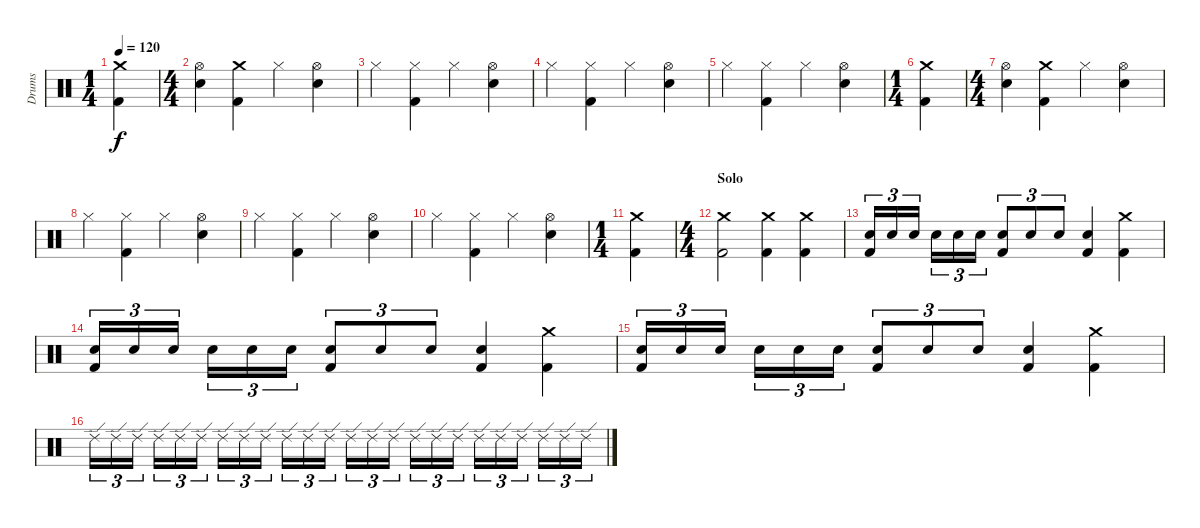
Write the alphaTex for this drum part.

\track ("Drums" "Drums") {instrument percussion}
\staff {score}
\articulation defaults
\ts (1 4)
\tempo 120
\clef neutral
\ks c
("Crash medium (hit)" "Kick (hit) 2").4{dy f} |
\ts (4 4)
("Hi-Hat (open)" "Electric Snare (hit)").4 ("Crash medium (hit)" "Kick (hit) 2").4 "Hi-Hat (closed)".4 ("Hi-Hat (open)" "Electric Snare (hit)").4 |
"Hi-Hat (closed)".4 ("Hi-Hat (closed)" "Kick (hit) 2").4 "Hi-Hat (closed)".4 ("Hi-Hat (open)" "Electric Snare (hit)").4 |
"Hi-Hat (closed)".4 ("Hi-Hat (closed)" "Kick (hit) 2").4 "Hi-Hat (closed)".4 ("Hi-Hat (open)" "Electric Snare (hit)").4 |
"Hi-Hat (closed)".4 ("Hi-Hat (closed)" "Kick (hit) 2").4 "Hi-Hat (closed)".4 ("Hi-Hat (open)" "Electric Snare (hit)").4 |
\ts (1 4)
("Crash medium (hit)" "Kick (hit) 2").4 |
\ts (4 4)
("Hi-Hat (open)" "Electric Snare (hit)").4 ("Crash medium (hit)" "Kick (hit) 2").4 "Hi-Hat (closed)".4 ("Hi-Hat (open)" "Electric Snare (hit)").4 |
"Hi-Hat (closed)".4 ("Hi-Hat (closed)" "Kick (hit) 2").4 "Hi-Hat (closed)".4 ("Hi-Hat (open)" "Electric Snare (hit)").4 |
"Hi-Hat (closed)".4 ("Hi-Hat (closed)" "Kick (hit) 2").4 "Hi-Hat (closed)".4 ("Hi-Hat (open)" "Electric Snare (hit)").4 |
"Hi-Hat (closed)".4 ("Hi-Hat (closed)" "Kick (hit) 2").4 "Hi-Hat (closed)".4 ("Hi-Hat (open)" "Electric Snare (hit)").4 |
\ts (1 4)
("Crash medium (hit)" "Kick (hit) 2").4 |
\ts (4 4)
\section ("" "Solo")
("Crash medium (hit)" "Kick (hit) 2").2 ("Crash medium (hit)" "Kick (hit) 2").4 ("Crash medium (hit)" "Kick (hit) 2").4 |
("Electric Snare (hit)" "Kick (hit) 2").16{tu (3 2)} "Electric Snare (hit)".16{tu (3 2)} "Electric Snare (hit)".16{tu (3 2)} "Electric Snare (hit)".16{tu (3 2)} "Electric Snare (hit)".16{tu (3 2)} "Electric Snare (hit)".16{tu (3 2)} ("Electric Snare (hit)" "Kick (hit) 2").8{tu (3 2)} "Electric Snare (hit)".8{tu (3 2)} "Electric Snare (hit)".8{tu (3 2)} ("Electric Snare (hit)" "Kick (hit) 2").4 ("Crash medium (hit)" "Kick (hit) 2").4 |
("Electric Snare (hit)" "Kick (hit) 2").16{tu (3 2)} "Electric Snare (hit)".16{tu (3 2)} "Electric Snare (hit)".16{tu (3 2)} "Electric Snare (hit)".16{tu (3 2)} "Electric Snare (hit)".16{tu (3 2)} "Electric Snare (hit)".16{tu (3 2)} ("Electric Snare (hit)" "Kick (hit) 2").8{tu (3 2)} "Electric Snare (hit)".8{tu (3 2)} "Electric Snare (hit)".8{tu (3 2)} ("Electric Snare (hit)" "Kick (hit) 2").4 ("Crash medium (hit)" "Kick (hit) 2").4 |
("Electric Snare (hit)" "Kick (hit) 2").16{tu (3 2)} "Electric Snare (hit)".16{tu (3 2)} "Electric Snare (hit)".16{tu (3 2)} "Electric Snare (hit)".16{tu (3 2)} "Electric Snare (hit)".16{tu (3 2)} "Electric Snare (hit)".16{tu (3 2)} ("Electric Snare (hit)" "Kick (hit) 2").8{tu (3 2)} "Electric Snare (hit)".8{tu (3 2)} "Electric Snare (hit)".8{tu (3 2)} ("Electric Snare (hit)" "Kick (hit) 2").4 ("Crash medium (hit)" "Kick (hit) 2").4 |
"Ride (edge) 2".16{tu (3 2)} "Ride (edge) 2".16{tu (3 2)} "Ride (edge) 2".16{tu (3 2)} "Ride (edge) 2".16{tu (3 2)} "Ride (edge) 2".16{tu (3 2)} "Ride (edge) 2".16{tu (3 2)} "Ride (edge) 2".16{tu (3 2)} "Ride (edge) 2".16{tu (3 2)} "Ride (edge) 2".16{tu (3 2)} "Ride (edge) 2".16{tu (3 2)} "Ride (edge) 2".16{tu (3 2)} "Ride (edge) 2".16{tu (3 2)} "Ride (edge) 2".16{tu (3 2)} "Ride (edge) 2".16{tu (3 2)} "Ride (edge) 2".16{tu (3 2)} "Ride (edge) 2".16{tu (3 2)} "Ride (edge) 2".16{tu (3 2)} "Ride (edge) 2".16{tu (3 2)} "Ride (edge) 2".16{tu (3 2)} "Ride (edge) 2".16{tu (3 2)} "Ride (edge) 2".16{tu (3 2)} "Ride (edge) 2".16{tu (3 2)} "Ride (edge) 2".16{tu (3 2)} "Ride (edge) 2".16{tu (3 2)}
